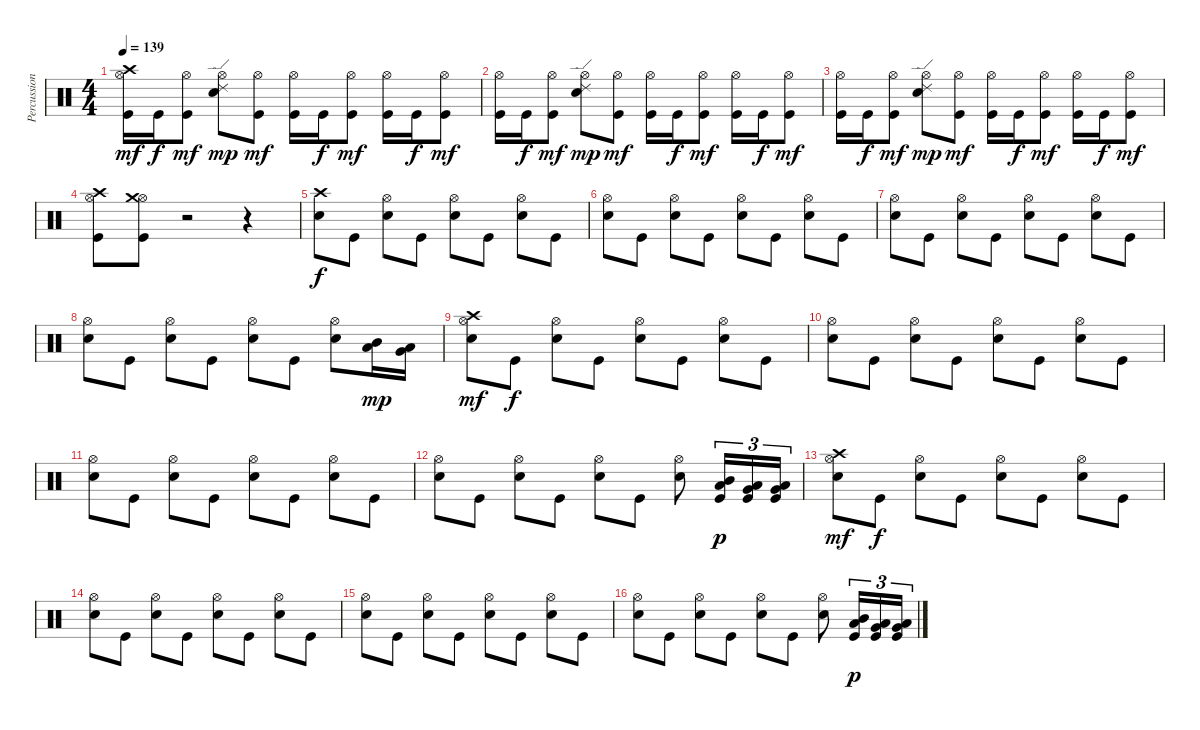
\track ("Percussions" "Percussion") {instrument percussion}
\staff {score}
\articulation defaults
\ts (4 4)
\tempo 139
\clef neutral
\ks c
("Kick (hit)" "Hi-Hat (open)" "Crash high (hit)").16{dy mf} "Kick (hit)".16{dy f} ("Kick (hit)" "Hi-Hat (open)").8{dy mf} ("Electric Snare (hit)" "Hi-Hat (open)" "Ride (edge) 2").8{dy mp} ("Kick (hit)" "Hi-Hat (open)").8{dy mf} ("Kick (hit)" "Hi-Hat (open)").16 "Kick (hit)".16{dy f} ("Kick (hit)" "Hi-Hat (open)").8{dy mf} ("Kick (hit)" "Hi-Hat (open)").16 "Kick (hit)".16{dy f} ("Kick (hit)" "Hi-Hat (open)").8{dy mf} |
("Kick (hit)" "Hi-Hat (open)").16 "Kick (hit)".16{dy f} ("Kick (hit)" "Hi-Hat (open)").8{dy mf} ("Electric Snare (hit)" "Hi-Hat (open)" "Ride (edge) 2").8{dy mp} ("Kick (hit)" "Hi-Hat (open)").8{dy mf} ("Kick (hit)" "Hi-Hat (open)").16 "Kick (hit)".16{dy f} ("Kick (hit)" "Hi-Hat (open)").8{dy mf} ("Kick (hit)" "Hi-Hat (open)").16 "Kick (hit)".16{dy f} ("Kick (hit)" "Hi-Hat (open)").8{dy mf} |
("Kick (hit)" "Hi-Hat (open)").16 "Kick (hit)".16{dy f} ("Kick (hit)" "Hi-Hat (open)").8{dy mf} ("Electric Snare (hit)" "Hi-Hat (open)" "Ride (edge) 2").8{dy mp} ("Kick (hit)" "Hi-Hat (open)").8{dy mf} ("Kick (hit)" "Hi-Hat (open)").16 "Kick (hit)".16{dy f} ("Kick (hit)" "Hi-Hat (open)").8{dy mf} ("Kick (hit)" "Hi-Hat (open)").16 "Kick (hit)".16{dy f} ("Kick (hit)" "Hi-Hat (open)").8{dy mf} |
("Kick (hit)" "Hi-Hat (open)" "Crash high (hit)").8 ("Kick (hit)" "Hi-Hat (open)" "Crash medium (hit)").8 r.2 r.4 |
("Electric Snare (hit)" "Crash high (hit)").8{dy f} "Kick (hit)".8 ("Electric Snare (hit)" "Hi-Hat (open)").8 "Kick (hit)".8 ("Electric Snare (hit)" "Hi-Hat (open)").8 "Kick (hit)".8 ("Electric Snare (hit)" "Hi-Hat (open)").8 "Kick (hit)".8 |
("Electric Snare (hit)" "Hi-Hat (open)").8 "Kick (hit)".8 ("Electric Snare (hit)" "Hi-Hat (open)").8 "Kick (hit)".8 ("Electric Snare (hit)" "Hi-Hat (open)").8 "Kick (hit)".8 ("Electric Snare (hit)" "Hi-Hat (open)").8 "Kick (hit)".8 |
("Electric Snare (hit)" "Hi-Hat (open)").8 "Kick (hit)".8 ("Electric Snare (hit)" "Hi-Hat (open)").8 "Kick (hit)".8 ("Electric Snare (hit)" "Hi-Hat (open)").8 "Kick (hit)".8 ("Electric Snare (hit)" "Hi-Hat (open)").8 "Kick (hit)".8 |
("Electric Snare (hit)" "Hi-Hat (open)").8 "Kick (hit)".8 ("Electric Snare (hit)" "Hi-Hat (open)").8 "Kick (hit)".8 ("Electric Snare (hit)" "Hi-Hat (open)").8 "Kick (hit)".8 ("Electric Snare (hit)" "Hi-Hat (open)").8 ("Low Tom (hit)" "Mid Tom (hit)").16{dy mp} ("Very Low Tom (hit)" "Low Tom (hit)").16 |
("Electric Snare (hit)" "Hi-Hat (open)" "Crash high (hit)").8{dy mf} "Kick (hit)".8{dy f} ("Electric Snare (hit)" "Hi-Hat (open)").8 "Kick (hit)".8 ("Electric Snare (hit)" "Hi-Hat (open)").8 "Kick (hit)".8 ("Electric Snare (hit)" "Hi-Hat (open)").8 "Kick (hit)".8 |
("Electric Snare (hit)" "Hi-Hat (open)").8 "Kick (hit)".8 ("Electric Snare (hit)" "Hi-Hat (open)").8 "Kick (hit)".8 ("Electric Snare (hit)" "Hi-Hat (open)").8 "Kick (hit)".8 ("Electric Snare (hit)" "Hi-Hat (open)").8 "Kick (hit)".8 |
("Electric Snare (hit)" "Hi-Hat (open)").8 "Kick (hit)".8 ("Electric Snare (hit)" "Hi-Hat (open)").8 "Kick (hit)".8 ("Electric Snare (hit)" "Hi-Hat (open)").8 "Kick (hit)".8 ("Electric Snare (hit)" "Hi-Hat (open)").8 "Kick (hit)".8 |
("Electric Snare (hit)" "Hi-Hat (open)").8 "Kick (hit)".8 ("Electric Snare (hit)" "Hi-Hat (open)").8 "Kick (hit)".8 ("Electric Snare (hit)" "Hi-Hat (open)").8 "Kick (hit)".8 ("Electric Snare (hit)" "Hi-Hat (open)").8 ("Kick (hit)" "Low Tom (hit)" "Mid Tom (hit)").16{tu (3 2) dy p} ("Kick (hit)" "Very Low Tom (hit)" "Low Tom (hit)").16{tu (3 2)} ("Kick (hit)" "Low Floor Tom (hit)" "Very Low Tom (hit)").16{tu (3 2)} |
("Electric Snare (hit)" "Hi-Hat (open)" "Crash high (hit)").8{dy mf} "Kick (hit)".8{dy f} ("Electric Snare (hit)" "Hi-Hat (open)").8 "Kick (hit)".8 ("Electric Snare (hit)" "Hi-Hat (open)").8 "Kick (hit)".8 ("Electric Snare (hit)" "Hi-Hat (open)").8 "Kick (hit)".8 |
("Electric Snare (hit)" "Hi-Hat (open)").8 "Kick (hit)".8 ("Electric Snare (hit)" "Hi-Hat (open)").8 "Kick (hit)".8 ("Electric Snare (hit)" "Hi-Hat (open)").8 "Kick (hit)".8 ("Electric Snare (hit)" "Hi-Hat (open)").8 "Kick (hit)".8 |
("Electric Snare (hit)" "Hi-Hat (open)").8 "Kick (hit)".8 ("Electric Snare (hit)" "Hi-Hat (open)").8 "Kick (hit)".8 ("Electric Snare (hit)" "Hi-Hat (open)").8 "Kick (hit)".8 ("Electric Snare (hit)" "Hi-Hat (open)").8 "Kick (hit)".8 |
("Electric Snare (hit)" "Hi-Hat (open)").8 "Kick (hit)".8 ("Electric Snare (hit)" "Hi-Hat (open)").8 "Kick (hit)".8 ("Electric Snare (hit)" "Hi-Hat (open)").8 "Kick (hit)".8 ("Electric Snare (hit)" "Hi-Hat (open)").8 ("Kick (hit)" "Low Tom (hit)" "Mid Tom (hit)").16{tu (3 2) dy p} ("Kick (hit)" "Very Low Tom (hit)" "Low Tom (hit)").16{tu (3 2)} ("Kick (hit)" "Low Floor Tom (hit)" "Very Low Tom (hit)").16{tu (3 2)}
